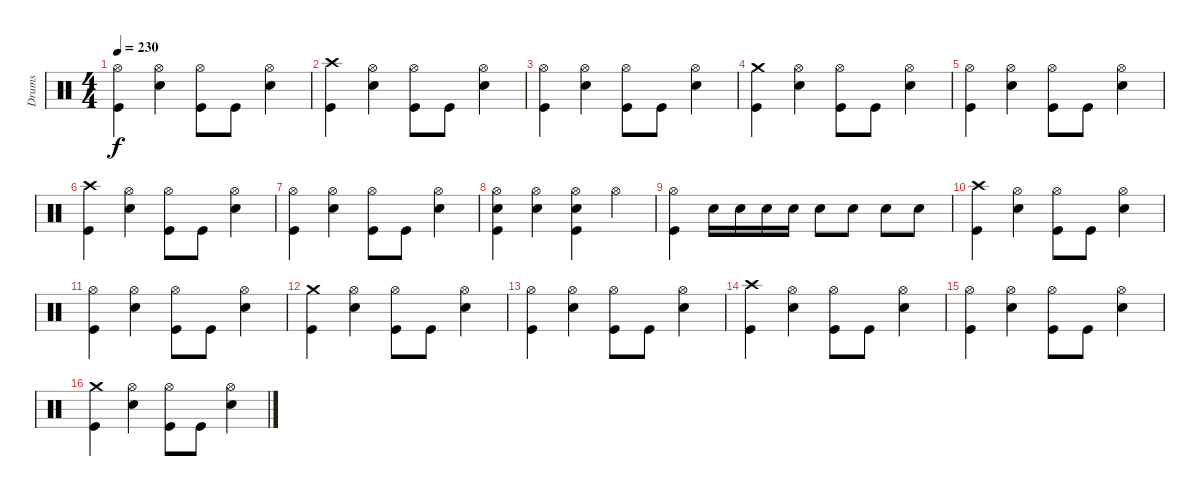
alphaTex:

\track ("Drums" "Drums") {instrument percussion}
\staff {score}
\articulation defaults
\ts (4 4)
\tempo 230
\clef neutral
\ks c
("Hi-Hat (open)" "Kick (hit)").4{dy f} ("Hi-Hat (open)" "Snare (hit) 2").4 ("Hi-Hat (open)" "Kick (hit)").8 "Kick (hit)".8 ("Hi-Hat (open)" "Snare (hit) 2").4 |
("Crash high (hit)" "Kick (hit)").4 ("Hi-Hat (open)" "Snare (hit) 2").4 ("Hi-Hat (open)" "Kick (hit)").8 "Kick (hit)".8 ("Hi-Hat (open)" "Snare (hit) 2").4 |
("Hi-Hat (open)" "Kick (hit)").4 ("Hi-Hat (open)" "Snare (hit) 2").4 ("Hi-Hat (open)" "Kick (hit)").8 "Kick (hit)".8 ("Hi-Hat (open)" "Snare (hit) 2").4 |
("Crash medium (hit)" "Kick (hit)").4 ("Hi-Hat (open)" "Snare (hit) 2").4 ("Hi-Hat (open)" "Kick (hit)").8 "Kick (hit)".8 ("Hi-Hat (open)" "Snare (hit) 2").4 |
("Hi-Hat (open)" "Kick (hit)").4 ("Hi-Hat (open)" "Snare (hit) 2").4 ("Hi-Hat (open)" "Kick (hit)").8 "Kick (hit)".8 ("Hi-Hat (open)" "Snare (hit) 2").4 |
("Crash high (hit)" "Kick (hit)").4 ("Hi-Hat (open)" "Snare (hit) 2").4 ("Hi-Hat (open)" "Kick (hit)").8 "Kick (hit)".8 ("Hi-Hat (open)" "Snare (hit) 2").4 |
("Hi-Hat (open)" "Kick (hit)").4 ("Hi-Hat (open)" "Snare (hit) 2").4 ("Hi-Hat (open)" "Kick (hit)").8 "Kick (hit)".8 ("Hi-Hat (open)" "Snare (hit) 2").4 |
("Hi-Hat (open)" "Snare (hit) 2" "Kick (hit)").4 ("Hi-Hat (open)" "Snare (hit) 2").4 ("Hi-Hat (open)" "Snare (hit) 2" "Kick (hit)").4 "Hi-Hat (open)".4 |
("Hi-Hat (open)" "Kick (hit)").4 "Snare (hit) 2".16 "Snare (hit) 2".16 "Snare (hit) 2".16 "Snare (hit) 2".16 "Snare (hit) 2".8 "Snare (hit) 2".8 "Snare (hit) 2".8 "Snare (hit) 2".8 |
("Crash high (hit)" "Kick (hit)").4 ("Hi-Hat (open)" "Snare (hit) 2").4 ("Hi-Hat (open)" "Kick (hit)").8 "Kick (hit)".8 ("Hi-Hat (open)" "Snare (hit) 2").4 |
("Hi-Hat (open)" "Kick (hit)").4 ("Hi-Hat (open)" "Snare (hit) 2").4 ("Hi-Hat (open)" "Kick (hit)").8 "Kick (hit)".8 ("Hi-Hat (open)" "Snare (hit) 2").4 |
("Crash medium (hit)" "Kick (hit)").4 ("Hi-Hat (open)" "Snare (hit) 2").4 ("Hi-Hat (open)" "Kick (hit)").8 "Kick (hit)".8 ("Hi-Hat (open)" "Snare (hit) 2").4 |
("Hi-Hat (open)" "Kick (hit)").4 ("Hi-Hat (open)" "Snare (hit) 2").4 ("Hi-Hat (open)" "Kick (hit)").8 "Kick (hit)".8 ("Hi-Hat (open)" "Snare (hit) 2").4 |
("Crash high (hit)" "Kick (hit)").4 ("Hi-Hat (open)" "Snare (hit) 2").4 ("Hi-Hat (open)" "Kick (hit)").8 "Kick (hit)".8 ("Hi-Hat (open)" "Snare (hit) 2").4 |
("Hi-Hat (open)" "Kick (hit)").4 ("Hi-Hat (open)" "Snare (hit) 2").4 ("Hi-Hat (open)" "Kick (hit)").8 "Kick (hit)".8 ("Hi-Hat (open)" "Snare (hit) 2").4 |
("Crash medium (hit)" "Kick (hit)").4 ("Hi-Hat (open)" "Snare (hit) 2").4 ("Hi-Hat (open)" "Kick (hit)").8 "Kick (hit)".8 ("Hi-Hat (open)" "Snare (hit) 2").4
